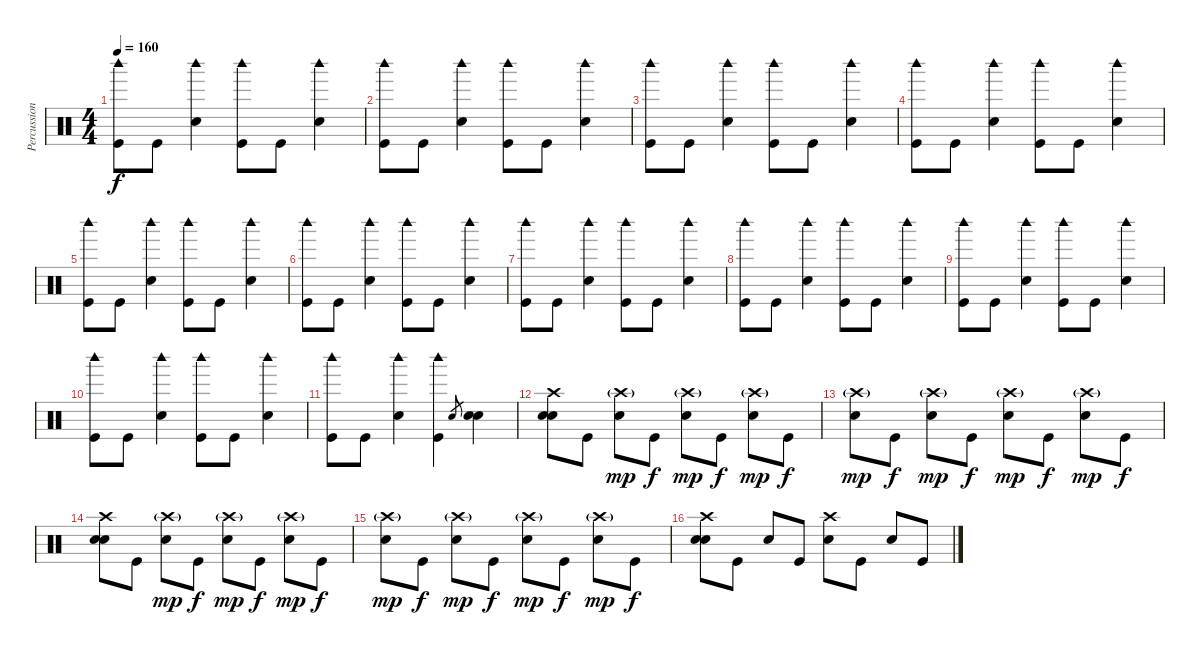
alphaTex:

\track ("Percussion" "Percussion") {instrument percussion}
\staff {score}
\articulation defaults
\ts (4 4)
\tempo 160
\clef neutral
\ks c
("Woodblock high (hit)" "Kick (hit)").8{dy f} "Kick (hit)".8 ("Woodblock high (hit)" "Snare (hit) 2").4 ("Woodblock high (hit)" "Kick (hit)").8 "Kick (hit)".8 ("Woodblock high (hit)" "Snare (hit) 2").4 |
("Woodblock high (hit)" "Kick (hit)").8 "Kick (hit)".8 ("Woodblock high (hit)" "Snare (hit) 2").4 ("Woodblock high (hit)" "Kick (hit)").8 "Kick (hit)".8 ("Woodblock high (hit)" "Snare (hit) 2").4 |
("Woodblock high (hit)" "Kick (hit)").8 "Kick (hit)".8 ("Woodblock high (hit)" "Snare (hit) 2").4 ("Woodblock high (hit)" "Kick (hit)").8 "Kick (hit)".8 ("Woodblock high (hit)" "Snare (hit) 2").4 |
("Woodblock high (hit)" "Kick (hit)").8 "Kick (hit)".8 ("Woodblock high (hit)" "Snare (hit) 2").4 ("Woodblock high (hit)" "Kick (hit)").8 "Kick (hit)".8 ("Woodblock high (hit)" "Snare (hit) 2").4 |
("Woodblock high (hit)" "Kick (hit)").8 "Kick (hit)".8 ("Woodblock high (hit)" "Snare (hit) 2").4 ("Woodblock high (hit)" "Kick (hit)").8 "Kick (hit)".8 ("Woodblock high (hit)" "Snare (hit) 2").4 |
("Woodblock high (hit)" "Kick (hit)").8 "Kick (hit)".8 ("Woodblock high (hit)" "Snare (hit) 2").4 ("Woodblock high (hit)" "Kick (hit)").8 "Kick (hit)".8 ("Woodblock high (hit)" "Snare (hit) 2").4 |
("Woodblock high (hit)" "Kick (hit)").8 "Kick (hit)".8 ("Woodblock high (hit)" "Snare (hit) 2").4 ("Woodblock high (hit)" "Kick (hit)").8 "Kick (hit)".8 ("Woodblock high (hit)" "Snare (hit) 2").4 |
("Woodblock high (hit)" "Kick (hit)").8 "Kick (hit)".8 ("Woodblock high (hit)" "Snare (hit) 2").4 ("Woodblock high (hit)" "Kick (hit)").8 "Kick (hit)".8 ("Woodblock high (hit)" "Snare (hit) 2").4 |
("Woodblock high (hit)" "Kick (hit)").8 "Kick (hit)".8 ("Woodblock high (hit)" "Snare (hit) 2").4 ("Woodblock high (hit)" "Kick (hit)").8 "Kick (hit)".8 ("Woodblock high (hit)" "Snare (hit) 2").4 |
("Woodblock high (hit)" "Kick (hit)").8 "Kick (hit)".8 ("Woodblock high (hit)" "Snare (hit) 2").4 ("Woodblock high (hit)" "Kick (hit)").8 "Kick (hit)".8 ("Woodblock high (hit)" "Snare (hit) 2").4 |
("Woodblock high (hit)" "Kick (hit)").8 "Kick (hit)".8 ("Woodblock high (hit)" "Snare (hit) 2").4 ("Woodblock high (hit)" "Kick (hit)").4 "Snare (hit) 2".8{gr} ("Snare (hit) 2" "Electric Snare (hit)").4 |
("Crash high (hit)" "Snare (hit) 2" "Electric Snare (hit)").8 "Kick (hit)".8 ("Snare (hit) 2" "Crash high (hit)"{g}).8{dy mp} "Kick (hit)".8{dy f} ("Snare (hit) 2" "Crash high (hit)"{g}).8{dy mp} "Kick (hit)".8{dy f} ("Snare (hit) 2" "Crash high (hit)"{g}).8{dy mp} "Kick (hit)".8{dy f} |
("Snare (hit) 2" "Crash high (hit)"{g}).8{dy mp} "Kick (hit)".8{dy f} ("Snare (hit) 2" "Crash high (hit)"{g}).8{dy mp} "Kick (hit)".8{dy f} ("Snare (hit) 2" "Crash high (hit)"{g}).8{dy mp} "Kick (hit)".8{dy f} ("Snare (hit) 2" "Crash high (hit)"{g}).8{dy mp} "Kick (hit)".8{dy f} |
("Crash high (hit)" "Snare (hit) 2" "Electric Snare (hit)").8 "Kick (hit)".8 ("Snare (hit) 2" "Crash high (hit)"{g}).8{dy mp} "Kick (hit)".8{dy f} ("Snare (hit) 2" "Crash high (hit)"{g}).8{dy mp} "Kick (hit)".8{dy f} ("Snare (hit) 2" "Crash high (hit)"{g}).8{dy mp} "Kick (hit)".8{dy f} |
("Snare (hit) 2" "Crash high (hit)"{g}).8{dy mp} "Kick (hit)".8{dy f} ("Snare (hit) 2" "Crash high (hit)"{g}).8{dy mp} "Kick (hit)".8{dy f} ("Snare (hit) 2" "Crash high (hit)"{g}).8{dy mp} "Kick (hit)".8{dy f} ("Snare (hit) 2" "Crash high (hit)"{g}).8{dy mp} "Kick (hit)".8{dy f} |
("Crash high (hit)" "Snare (hit) 2" "Electric Snare (hit)").8 "Kick (hit)".8 "Snare (hit) 2".8 "Kick (hit)".8 ("Snare (hit) 2" "Crash high (hit)").8 "Kick (hit)".8 "Snare (hit) 2".8 "Kick (hit)".8
